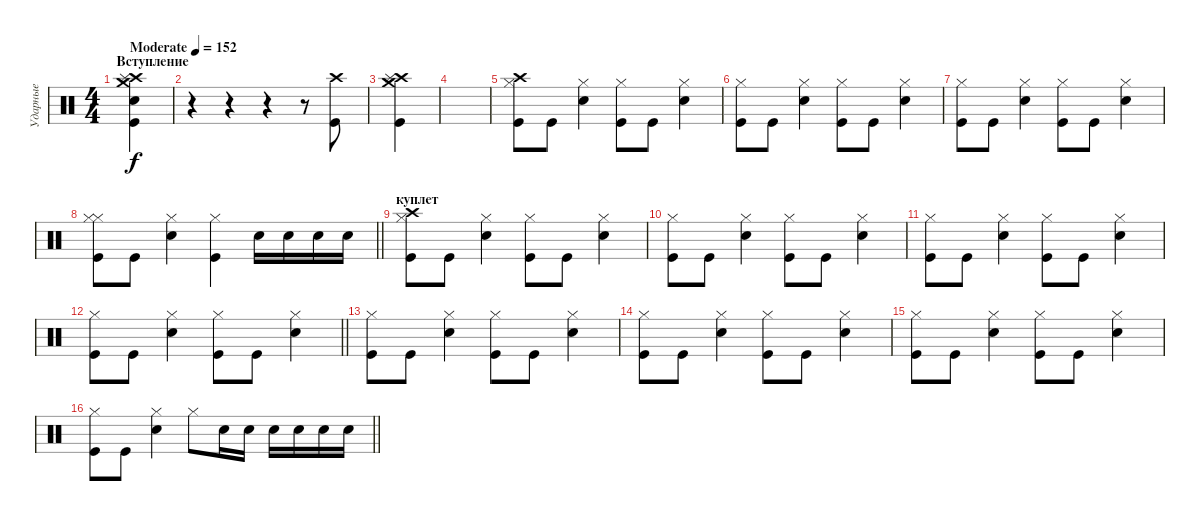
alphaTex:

\track ("Ударные" "Ударные") {instrument percussion}
\staff {score}
\articulation defaults
\ts (4 4)
\section ("" "Вступление")
\tempo (152 "Moderate")
\clef neutral
\ks c
("Crash high (hit)" "Snare (hit) 2" "Crash medium (hit)" "Splash (hit)" "Kick (hit)").4{dy f} |
r.4 r.4 r.4 r.8 ("Crash high (hit)" "Kick (hit)").8 |
("Crash high (hit)" "Kick (hit)" "Crash medium (hit)" "Splash (hit)").4 |
|
("Hi-Hat (closed)" "Crash high (hit)" "Kick (hit)").8 "Kick (hit)".8 ("Snare (hit) 2" "Hi-Hat (closed)").4 ("Hi-Hat (closed)" "Kick (hit)").8 "Kick (hit)".8 ("Snare (hit) 2" "Hi-Hat (closed)").4 |
("Hi-Hat (closed)" "Kick (hit)").8 "Kick (hit)".8 ("Snare (hit) 2" "Hi-Hat (closed)").4 ("Hi-Hat (closed)" "Kick (hit)").8 "Kick (hit)".8 ("Snare (hit) 2" "Hi-Hat (closed)").4 |
("Hi-Hat (closed)" "Kick (hit)").8 "Kick (hit)".8 ("Snare (hit) 2" "Hi-Hat (closed)").4 ("Hi-Hat (closed)" "Kick (hit)").8 "Kick (hit)".8 ("Snare (hit) 2" "Hi-Hat (closed)").4 |
\barLineRight lightlight
("Hi-Hat (closed)" "Hi-Hat (closed)" "Kick (hit)").8 "Kick (hit)".8 ("Snare (hit) 2" "Hi-Hat (closed)").4 ("Hi-Hat (closed)" "Kick (hit)").4 "Snare (hit) 2".16 "Snare (hit) 2".16 "Snare (hit) 2".16 "Snare (hit) 2".16 |
\section ("" "куплет")
("Hi-Hat (closed)" "Crash high (hit)" "Kick (hit)").8 "Kick (hit)".8 ("Snare (hit) 2" "Hi-Hat (closed)").4 ("Hi-Hat (closed)" "Kick (hit)").8 "Kick (hit)".8 ("Snare (hit) 2" "Hi-Hat (closed)").4 |
("Hi-Hat (closed)" "Kick (hit)").8 "Kick (hit)".8 ("Snare (hit) 2" "Hi-Hat (closed)").4 ("Hi-Hat (closed)" "Kick (hit)").8 "Kick (hit)".8 ("Snare (hit) 2" "Hi-Hat (closed)").4 |
("Hi-Hat (closed)" "Kick (hit)").8 "Kick (hit)".8 ("Snare (hit) 2" "Hi-Hat (closed)").4 ("Hi-Hat (closed)" "Kick (hit)").8 "Kick (hit)".8 ("Snare (hit) 2" "Hi-Hat (closed)").4 |
\barLineRight lightlight
("Hi-Hat (closed)" "Kick (hit)").8 "Kick (hit)".8 ("Snare (hit) 2" "Hi-Hat (closed)").4 ("Hi-Hat (closed)" "Kick (hit)").8 "Kick (hit)".8 ("Snare (hit) 2" "Hi-Hat (closed)").4 |
("Hi-Hat (closed)" "Kick (hit)").8 "Kick (hit)".8 ("Snare (hit) 2" "Hi-Hat (closed)").4 ("Hi-Hat (closed)" "Kick (hit)").8 "Kick (hit)".8 ("Snare (hit) 2" "Hi-Hat (closed)").4 |
("Hi-Hat (closed)" "Kick (hit)").8 "Kick (hit)".8 ("Snare (hit) 2" "Hi-Hat (closed)").4 ("Hi-Hat (closed)" "Kick (hit)").8 "Kick (hit)".8 ("Snare (hit) 2" "Hi-Hat (closed)").4 |
("Hi-Hat (closed)" "Kick (hit)").8 "Kick (hit)".8 ("Snare (hit) 2" "Hi-Hat (closed)").4 ("Hi-Hat (closed)" "Kick (hit)").8 "Kick (hit)".8 ("Snare (hit) 2" "Hi-Hat (closed)").4 |
\barLineRight lightlight
("Hi-Hat (closed)" "Kick (hit)").8 "Kick (hit)".8 ("Snare (hit) 2" "Hi-Hat (closed)").4 "Hi-Hat (closed)".8 "Snare (hit) 2".16 "Snare (hit) 2".16 "Snare (hit) 2".16 "Snare (hit) 2".16 "Snare (hit) 2".16 "Snare (hit) 2".16
